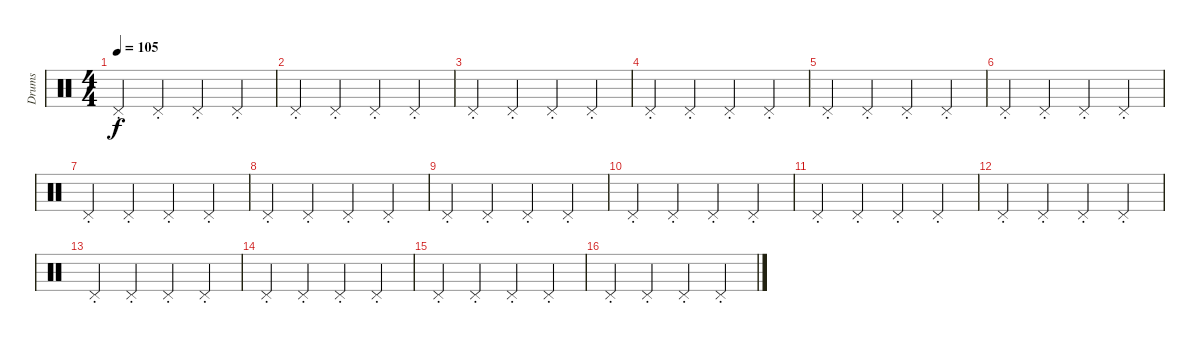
\track ("Drums" "Drums") {instrument percussion}
\staff {score}
\articulation defaults
\ts (4 4)
\tempo 105
\clef neutral
\ks c "Pedal Hi-Hat (hit)"{st}.4{dy f} "Pedal Hi-Hat (hit)"{st}.4 "Pedal Hi-Hat (hit)"{st}.4 "Pedal Hi-Hat (hit)"{st}.4
|
"Pedal Hi-Hat (hit)"{st}.4 "Pedal Hi-Hat (hit)"{st}.4 "Pedal Hi-Hat (hit)"{st}.4 "Pedal Hi-Hat (hit)"{st}.4 |
"Pedal Hi-Hat (hit)"{st}.4 "Pedal Hi-Hat (hit)"{st}.4 "Pedal Hi-Hat (hit)"{st}.4 "Pedal Hi-Hat (hit)"{st}.4 |
"Pedal Hi-Hat (hit)"{st}.4 "Pedal Hi-Hat (hit)"{st}.4 "Pedal Hi-Hat (hit)"{st}.4 "Pedal Hi-Hat (hit)"{st}.4 |
"Pedal Hi-Hat (hit)"{st}.4 "Pedal Hi-Hat (hit)"{st}.4 "Pedal Hi-Hat (hit)"{st}.4 "Pedal Hi-Hat (hit)"{st}.4 |
"Pedal Hi-Hat (hit)"{st}.4 "Pedal Hi-Hat (hit)"{st}.4 "Pedal Hi-Hat (hit)"{st}.4 "Pedal Hi-Hat (hit)"{st}.4 |
"Pedal Hi-Hat (hit)"{st}.4 "Pedal Hi-Hat (hit)"{st}.4 "Pedal Hi-Hat (hit)"{st}.4 "Pedal Hi-Hat (hit)"{st}.4 |
"Pedal Hi-Hat (hit)"{st}.4 "Pedal Hi-Hat (hit)"{st}.4 "Pedal Hi-Hat (hit)"{st}.4 "Pedal Hi-Hat (hit)"{st}.4 |
"Pedal Hi-Hat (hit)"{st}.4 "Pedal Hi-Hat (hit)"{st}.4 "Pedal Hi-Hat (hit)"{st}.4 "Pedal Hi-Hat (hit)"{st}.4 |
"Pedal Hi-Hat (hit)"{st}.4 "Pedal Hi-Hat (hit)"{st}.4 "Pedal Hi-Hat (hit)"{st}.4 "Pedal Hi-Hat (hit)"{st}.4 |
"Pedal Hi-Hat (hit)"{st}.4 "Pedal Hi-Hat (hit)"{st}.4 "Pedal Hi-Hat (hit)"{st}.4 "Pedal Hi-Hat (hit)"{st}.4 |
"Pedal Hi-Hat (hit)"{st}.4 "Pedal Hi-Hat (hit)"{st}.4 "Pedal Hi-Hat (hit)"{st}.4 "Pedal Hi-Hat (hit)"{st}.4 |
"Pedal Hi-Hat (hit)"{st}.4 "Pedal Hi-Hat (hit)"{st}.4 "Pedal Hi-Hat (hit)"{st}.4 "Pedal Hi-Hat (hit)"{st}.4 |
"Pedal Hi-Hat (hit)"{st}.4 "Pedal Hi-Hat (hit)"{st}.4 "Pedal Hi-Hat (hit)"{st}.4 "Pedal Hi-Hat (hit)"{st}.4 |
"Pedal Hi-Hat (hit)"{st}.4 "Pedal Hi-Hat (hit)"{st}.4 "Pedal Hi-Hat (hit)"{st}.4 "Pedal Hi-Hat (hit)"{st}.4 |
"Pedal Hi-Hat (hit)"{st}.4 "Pedal Hi-Hat (hit)"{st}.4 "Pedal Hi-Hat (hit)"{st}.4 "Pedal Hi-Hat (hit)"{st}.4
